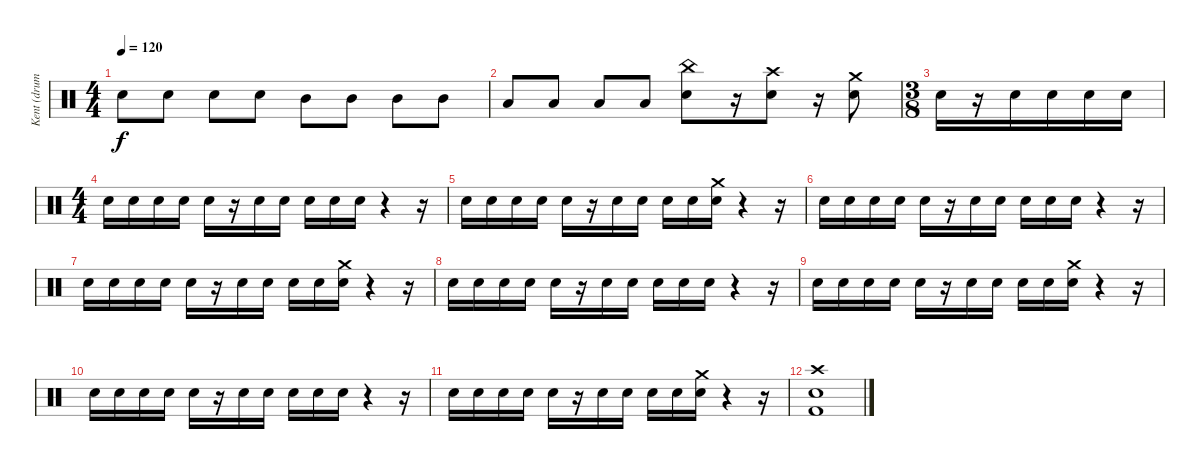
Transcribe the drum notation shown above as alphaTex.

\track ("Kent (drums)" "Kent (drum") {instrument percussion}
\staff {score}
\articulation defaults
\ts (4 4)
\tempo 120
\clef neutral
\ks c "Snare (hit) 2".8{dy f} "Snare (hit) 2".8 "Snare (hit) 2".8 "Snare (hit) 2".8 "Mid Tom (hit)".8 "Mid Tom (hit)".8 "Mid Tom (hit)".8 "Mid Tom (hit)".8
|
"Low Tom (hit)".8 "Low Tom (hit)".8 "Low Tom (hit)".8 "Low Tom (hit)".8 ("China (hit)" "Snare (hit) 2").8 r.16 ("Crash high (hit)" "Snare (hit) 2").8 r.16 ("Crash medium (hit)" "Snare (hit) 2").8 |
\ts (3 8)
"Snare (hit) 2".16 r.16 "Snare (hit) 2".16 "Snare (hit) 2".16 "Snare (hit) 2".16 "Snare (hit) 2".16 |
\ts (4 4)
"Snare (hit) 2".16 "Snare (hit) 2".16 "Snare (hit) 2".16 "Snare (hit) 2".16 "Snare (hit) 2".16 r.16 "Snare (hit) 2".16 "Snare (hit) 2".16 "Snare (hit) 2".16 "Snare (hit) 2".16 "Snare (hit) 2".16 r.4 r.16 |
"Snare (hit) 2".16 "Snare (hit) 2".16 "Snare (hit) 2".16 "Snare (hit) 2".16 "Snare (hit) 2".16 r.16 "Snare (hit) 2".16 "Snare (hit) 2".16 "Snare (hit) 2".16 "Snare (hit) 2".16 ("Crash medium (hit)" "Snare (hit) 2").16 r.4 r.16 |
"Snare (hit) 2".16 "Snare (hit) 2".16 "Snare (hit) 2".16 "Snare (hit) 2".16 "Snare (hit) 2".16 r.16 "Snare (hit) 2".16 "Snare (hit) 2".16 "Snare (hit) 2".16 "Snare (hit) 2".16 "Snare (hit) 2".16 r.4 r.16 |
"Snare (hit) 2".16 "Snare (hit) 2".16 "Snare (hit) 2".16 "Snare (hit) 2".16 "Snare (hit) 2".16 r.16 "Snare (hit) 2".16 "Snare (hit) 2".16 "Snare (hit) 2".16 "Snare (hit) 2".16 ("Crash medium (hit)" "Snare (hit) 2").16 r.4 r.16 |
"Snare (hit) 2".16 "Snare (hit) 2".16 "Snare (hit) 2".16 "Snare (hit) 2".16 "Snare (hit) 2".16 r.16 "Snare (hit) 2".16 "Snare (hit) 2".16 "Snare (hit) 2".16 "Snare (hit) 2".16 "Snare (hit) 2".16 r.4 r.16 |
"Snare (hit) 2".16 "Snare (hit) 2".16 "Snare (hit) 2".16 "Snare (hit) 2".16 "Snare (hit) 2".16 r.16 "Snare (hit) 2".16 "Snare (hit) 2".16 "Snare (hit) 2".16 "Snare (hit) 2".16 ("Crash medium (hit)" "Snare (hit) 2").16 r.4 r.16 |
"Snare (hit) 2".16 "Snare (hit) 2".16 "Snare (hit) 2".16 "Snare (hit) 2".16 "Snare (hit) 2".16 r.16 "Snare (hit) 2".16 "Snare (hit) 2".16 "Snare (hit) 2".16 "Snare (hit) 2".16 "Snare (hit) 2".16 r.4 r.16 |
"Snare (hit) 2".16 "Snare (hit) 2".16 "Snare (hit) 2".16 "Snare (hit) 2".16 "Snare (hit) 2".16 r.16 "Snare (hit) 2".16 "Snare (hit) 2".16 "Snare (hit) 2".16 "Snare (hit) 2".16 ("Crash medium (hit)" "Snare (hit) 2").16 r.4 r.16 |
("Crash high (hit)" "Snare (hit) 2" "Kick (hit) 2").1
